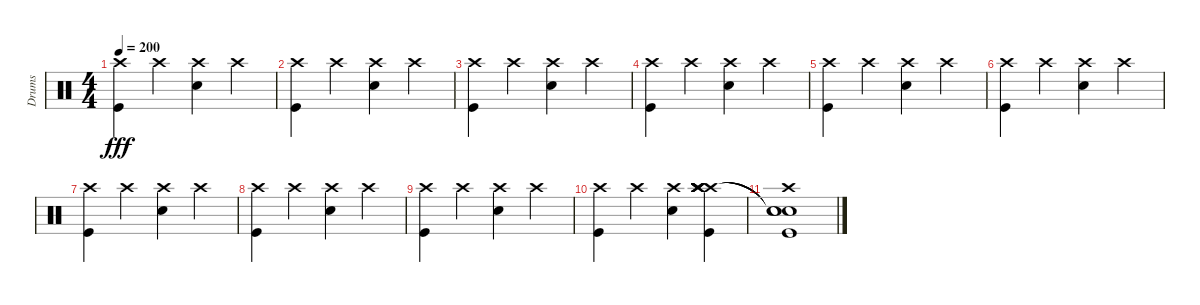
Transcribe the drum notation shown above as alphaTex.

\track ("Drums" "Drums") {instrument percussion}
\staff {score}
\articulation defaults
\ts (4 4)
\tempo 200
\clef neutral
\ks c
("Crash high (hit)" "Kick (hit)").4{dy fff} "Crash high (hit)".4 ("Crash high (hit)" "Snare (hit) 2").4 "Crash high (hit)".4 |
("Crash high (hit)" "Kick (hit)").4 "Crash high (hit)".4 ("Crash high (hit)" "Snare (hit) 2").4 "Crash high (hit)".4 |
("Crash high (hit)" "Kick (hit)").4 "Crash high (hit)".4 ("Crash high (hit)" "Snare (hit) 2").4 "Crash high (hit)".4 |
("Crash high (hit)" "Kick (hit)").4 "Crash high (hit)".4 ("Crash high (hit)" "Snare (hit) 2").4 "Crash high (hit)".4 |
("Crash high (hit)" "Kick (hit)").4 "Crash high (hit)".4 ("Crash high (hit)" "Snare (hit) 2").4 "Crash high (hit)".4 |
("Crash high (hit)" "Kick (hit)").4 "Crash high (hit)".4 ("Crash high (hit)" "Snare (hit) 2").4 "Crash high (hit)".4 |
("Crash high (hit)" "Kick (hit)").4 "Crash high (hit)".4 ("Crash high (hit)" "Snare (hit) 2").4 "Crash high (hit)".4 |
("Crash high (hit)" "Kick (hit)").4 "Crash high (hit)".4 ("Crash high (hit)" "Snare (hit) 2").4 "Crash high (hit)".4 |
("Crash high (hit)" "Kick (hit)").4 "Crash high (hit)".4 ("Crash high (hit)" "Snare (hit) 2").4 "Crash high (hit)".4 |
("Crash high (hit)" "Kick (hit)").4 "Crash high (hit)".4 ("Crash high (hit)" "Snare (hit) 2").4 ("Crash high (hit)" "Crash high (hit)" "Crash high (hit)" "Kick (hit)" "Crash high (hit)" "Crash high (hit)").4 |
("Snare (hit)"{t} "Snare (hit)"{t} "Crash high (hit)" "Kick (hit)" "Snare (hit)"{t}).1
